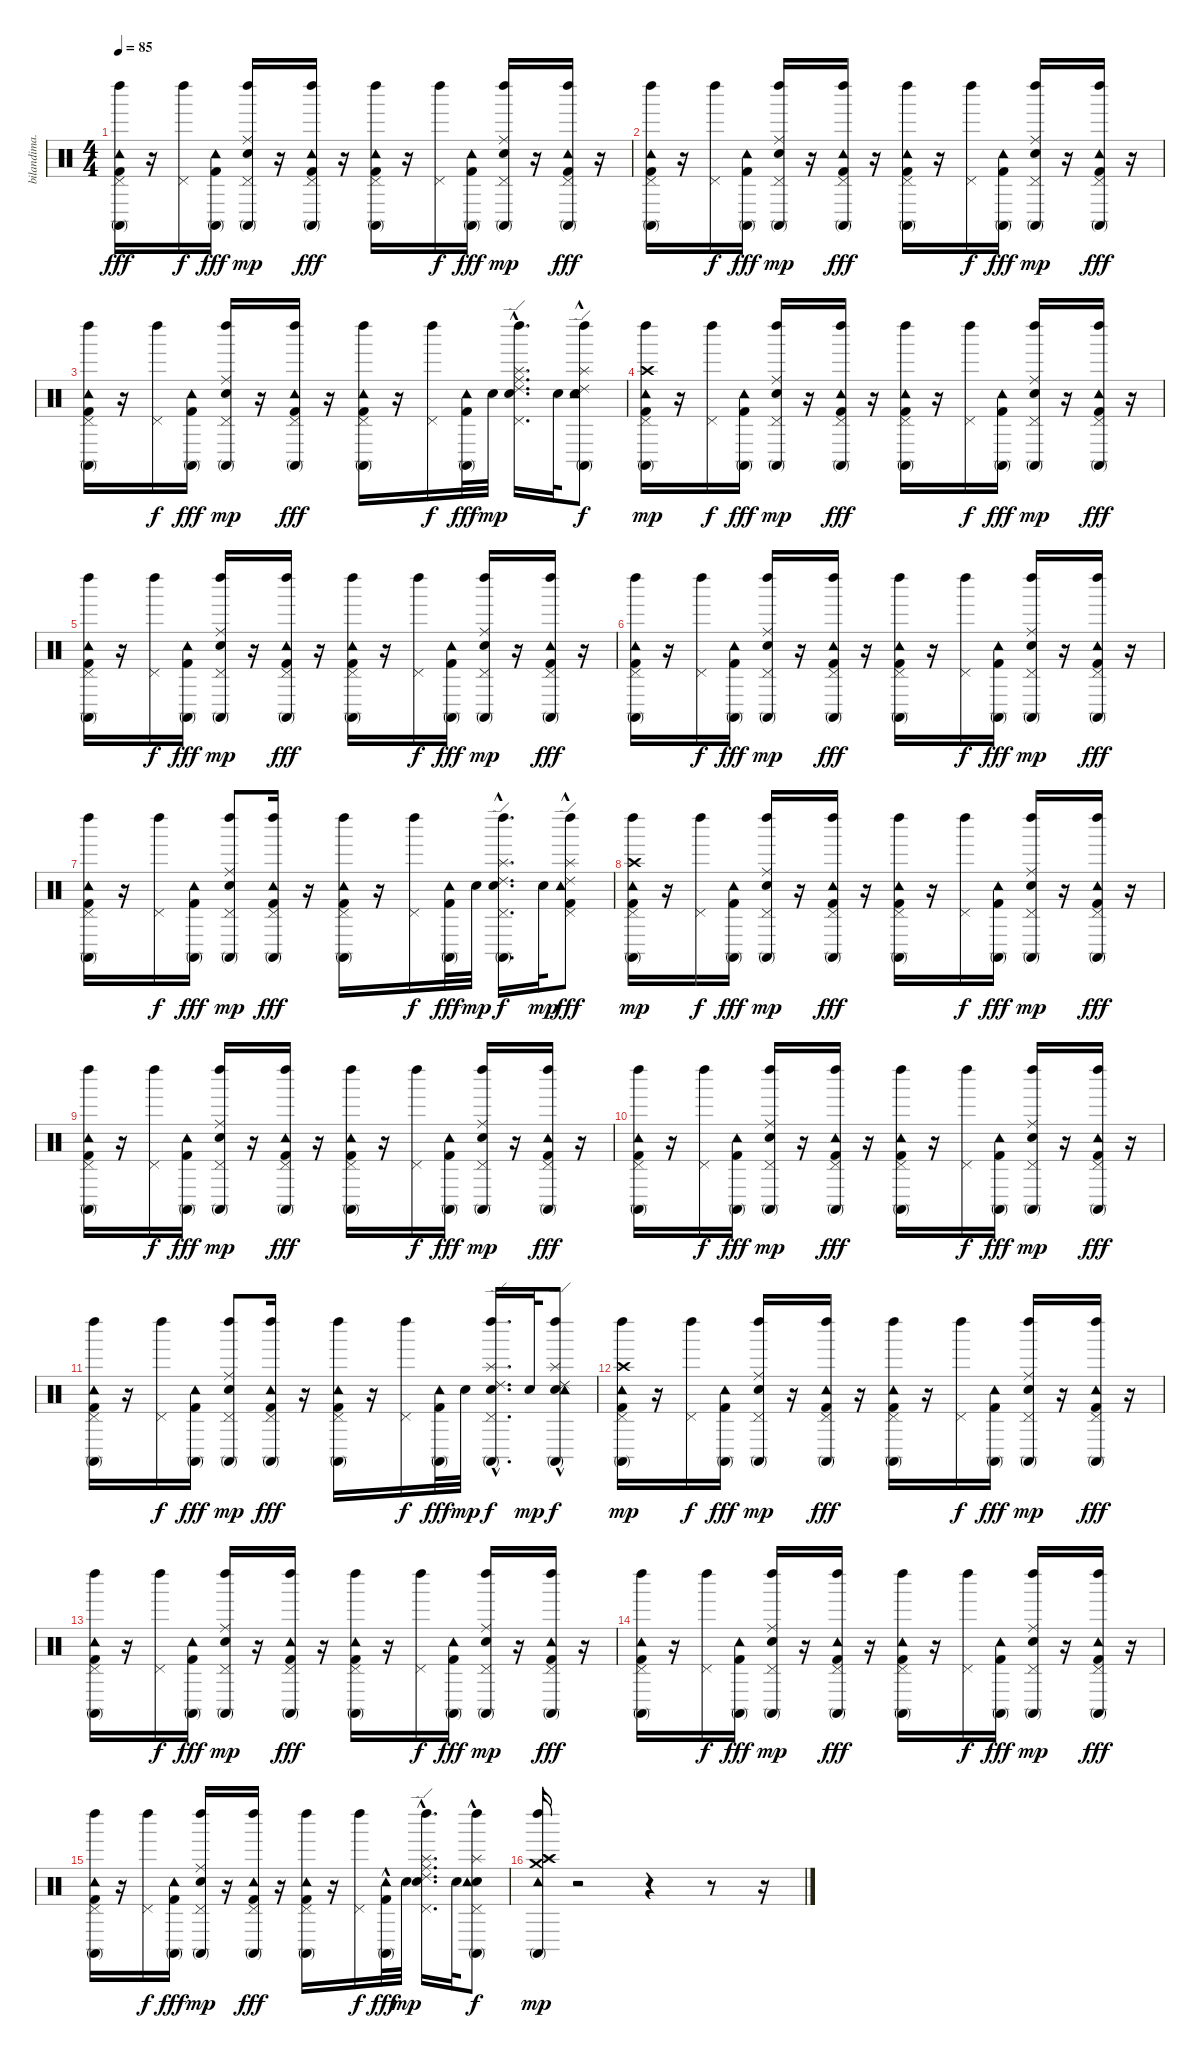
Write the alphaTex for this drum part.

\track ("bilandima.ru" "bilandima.") {instrument percussion}
\staff {score}
\articulation defaults
\ts (4 4)
\tempo 85
\clef neutral
\ks c
("Conga high (mute)" "Left Maraca (hit)" "Tambourine (hit)" "Pedal Hi-Hat (hit)" "Kick (hit) 2").16{dy fff} r.16 ("Left Maraca (hit)" "Pedal Hi-Hat (hit)").16{dy f} ("Tambourine (hit)" "Kick (hit) 2" "Conga high (mute)").16{dy fff} ("Ride (middle)" "Left Maraca (hit)" "Pedal Hi-Hat (hit)" "Electric Snare (hit)" "Conga high (mute)").16{dy mp} r.16 ("Conga high (mute)" "Left Maraca (hit)" "Tambourine (hit)" "Pedal Hi-Hat (hit)" "Kick (hit) 2").16{dy fff} r.16 ("Left Maraca (hit)" "Tambourine (hit)" "Pedal Hi-Hat (hit)" "Kick (hit) 2" "Conga high (mute)").16 r.16 ("Left Maraca (hit)" "Pedal Hi-Hat (hit)").16{dy f} ("Conga high (mute)" "Tambourine (hit)" "Kick (hit) 2").16{dy fff} ("Electric Snare (hit)" "Pedal Hi-Hat (hit)" "Left Maraca (hit)" "Conga high (mute)" "Ride (middle)").16{dy mp} r.16 ("Conga high (mute)" "Left Maraca (hit)" "Tambourine (hit)" "Pedal Hi-Hat (hit)" "Kick (hit) 2").16{dy fff} r.16 |
("Conga high (mute)" "Left Maraca (hit)" "Tambourine (hit)" "Pedal Hi-Hat (hit)" "Kick (hit) 2").16 r.16 ("Left Maraca (hit)" "Pedal Hi-Hat (hit)").16{dy f} ("Tambourine (hit)" "Kick (hit) 2" "Conga high (mute)").16{dy fff} ("Conga high (mute)" "Left Maraca (hit)" "Pedal Hi-Hat (hit)" "Electric Snare (hit)" "Ride (middle)").16{dy mp} r.16 ("Conga high (mute)" "Left Maraca (hit)" "Tambourine (hit)" "Pedal Hi-Hat (hit)" "Kick (hit) 2").16{dy fff} r.16 ("Conga high (mute)" "Left Maraca (hit)" "Tambourine (hit)" "Pedal Hi-Hat (hit)" "Kick (hit) 2").16 r.16 ("Pedal Hi-Hat (hit)" "Left Maraca (hit)").16{dy f} ("Kick (hit) 2" "Tambourine (hit)" "Conga high (mute)").16{dy fff} ("Conga high (mute)" "Left Maraca (hit)" "Pedal Hi-Hat (hit)" "Electric Snare (hit)" "Ride (middle)").16{dy mp} r.16 ("Conga high (mute)" "Left Maraca (hit)" "Tambourine (hit)" "Pedal Hi-Hat (hit)" "Kick (hit) 2").16{dy fff} r.16 |
("Kick (hit) 2" "Pedal Hi-Hat (hit)" "Tambourine (hit)" "Left Maraca (hit)" "Conga high (mute)").16 r.16 ("Left Maraca (hit)" "Pedal Hi-Hat (hit)").16{dy f} ("Kick (hit) 2" "Tambourine (hit)" "Conga high (mute)").16{dy fff} ("Conga high (mute)" "Ride (middle)" "Left Maraca (hit)" "Pedal Hi-Hat (hit)" "Electric Snare (hit)").16{dy mp} r.16 ("Kick (hit) 2" "Pedal Hi-Hat (hit)" "Tambourine (hit)" "Left Maraca (hit)" "Conga high (mute)").16{dy fff} r.16 ("Conga high (mute)" "Left Maraca (hit)" "Tambourine (hit)" "Pedal Hi-Hat (hit)" "Kick (hit) 2").16 r.16 ("Left Maraca (hit)" "Pedal Hi-Hat (hit)").16{dy f} ("Kick (hit) 2" "Tambourine (hit)" "Conga high (mute)").32{dy fff} "Electric Snare (hit)".32{dy mp} ("Ride (middle)" "Pedal Hi-Hat (hit)"{hac} "Left Maraca (hit)" "Splash (hit)" "Electric Snare (hit)" "Ride (edge) 2").16{d} "Electric Snare (hit)".32 ("Conga high (mute)" "Ride (edge) 2" "Electric Snare (hit)" "Splash (hit)"{hac} "Left Maraca (hit)" "Tambourine (hit)").8{dy f} |
("Conga high (mute)" "Left Maraca (hit)" "Tambourine (hit)" "Pedal Hi-Hat (hit)" "Kick (hit) 2" "Crash high (hit)").16{dy mp} r.16 ("Left Maraca (hit)" "Pedal Hi-Hat (hit)").16{dy f} ("Conga high (mute)" "Tambourine (hit)" "Kick (hit) 2").16{dy fff} ("Electric Snare (hit)" "Pedal Hi-Hat (hit)" "Left Maraca (hit)" "Conga high (mute)" "Ride (middle)").16{dy mp} r.16 ("Conga high (mute)" "Left Maraca (hit)" "Tambourine (hit)" "Pedal Hi-Hat (hit)" "Kick (hit) 2").16{dy fff} r.16 ("Left Maraca (hit)" "Tambourine (hit)" "Pedal Hi-Hat (hit)" "Kick (hit) 2" "Conga high (mute)").16 r.16 ("Pedal Hi-Hat (hit)" "Left Maraca (hit)").16{dy f} ("Tambourine (hit)" "Kick (hit) 2" "Conga high (mute)").16{dy fff} ("Ride (middle)" "Left Maraca (hit)" "Pedal Hi-Hat (hit)" "Electric Snare (hit)" "Conga high (mute)").16{dy mp} r.16 ("Conga high (mute)" "Left Maraca (hit)" "Tambourine (hit)" "Pedal Hi-Hat (hit)" "Kick (hit) 2").16{dy fff} r.16 |
("Kick (hit) 2" "Pedal Hi-Hat (hit)" "Tambourine (hit)" "Left Maraca (hit)" "Conga high (mute)").16 r.16 ("Left Maraca (hit)" "Pedal Hi-Hat (hit)").16{dy f} ("Kick (hit) 2" "Tambourine (hit)" "Conga high (mute)").16{dy fff} ("Ride (middle)" "Conga high (mute)" "Left Maraca (hit)" "Pedal Hi-Hat (hit)" "Electric Snare (hit)").16{dy mp} r.16 ("Conga high (mute)" "Left Maraca (hit)" "Tambourine (hit)" "Pedal Hi-Hat (hit)" "Kick (hit) 2").16{dy fff} r.16 ("Conga high (mute)" "Kick (hit) 2" "Pedal Hi-Hat (hit)" "Tambourine (hit)" "Left Maraca (hit)").16 r.16 ("Left Maraca (hit)" "Pedal Hi-Hat (hit)").16{dy f} ("Kick (hit) 2" "Tambourine (hit)" "Conga high (mute)").16{dy fff} ("Ride (middle)" "Conga high (mute)" "Left Maraca (hit)" "Pedal Hi-Hat (hit)" "Electric Snare (hit)").16{dy mp} r.16 ("Kick (hit) 2" "Pedal Hi-Hat (hit)" "Tambourine (hit)" "Left Maraca (hit)" "Conga high (mute)").16{dy fff} r.16 |
("Conga high (mute)" "Left Maraca (hit)" "Tambourine (hit)" "Pedal Hi-Hat (hit)" "Kick (hit) 2").16 r.16 ("Left Maraca (hit)" "Pedal Hi-Hat (hit)").16{dy f} ("Conga high (mute)" "Tambourine (hit)" "Kick (hit) 2").16{dy fff} ("Ride (middle)" "Electric Snare (hit)" "Pedal Hi-Hat (hit)" "Left Maraca (hit)" "Conga high (mute)").16{dy mp} r.16 ("Kick (hit) 2" "Pedal Hi-Hat (hit)" "Tambourine (hit)" "Left Maraca (hit)" "Conga high (mute)").16{dy fff} r.16 ("Conga high (mute)" "Left Maraca (hit)" "Tambourine (hit)" "Pedal Hi-Hat (hit)" "Kick (hit) 2").16 r.16 ("Pedal Hi-Hat (hit)" "Left Maraca (hit)").16{dy f} ("Conga high (mute)" "Tambourine (hit)" "Kick (hit) 2").16{dy fff} ("Ride (middle)" "Electric Snare (hit)" "Pedal Hi-Hat (hit)" "Left Maraca (hit)" "Conga high (mute)").16{dy mp} r.16 ("Conga high (mute)" "Left Maraca (hit)" "Tambourine (hit)" "Pedal Hi-Hat (hit)" "Kick (hit) 2").16{dy fff} r.16 |
("Conga high (mute)" "Left Maraca (hit)" "Tambourine (hit)" "Pedal Hi-Hat (hit)" "Kick (hit) 2").16 r.16 ("Pedal Hi-Hat (hit)" "Left Maraca (hit)").16{dy f} ("Conga high (mute)" "Tambourine (hit)" "Kick (hit) 2").16{dy fff} ("Conga high (mute)" "Ride (middle)" "Left Maraca (hit)" "Pedal Hi-Hat (hit)" "Electric Snare (hit)").8{dy mp} ("Conga high (mute)" "Left Maraca (hit)" "Tambourine (hit)" "Pedal Hi-Hat (hit)" "Kick (hit) 2").16{dy fff} r.16 ("Conga high (mute)" "Left Maraca (hit)" "Tambourine (hit)" "Pedal Hi-Hat (hit)" "Kick (hit) 2").16 r.16 ("Pedal Hi-Hat (hit)" "Left Maraca (hit)").16{dy f} ("Kick (hit) 2" "Tambourine (hit)" "Conga high (mute)").32{dy fff} "Electric Snare (hit)".32{dy mp} ("Ride (edge) 2" "Conga high (mute)"{hac} "Electric Snare (hit)" "Splash (hit)" "Left Maraca (hit)" "Pedal Hi-Hat (hit)").16{d dy f} "Electric Snare (hit)".32{dy mp} ("Ride (edge) 2" "Kick (hit) 2" "Pedal Hi-Hat (hit)" "Tambourine (hit)" "Left Maraca (hit)" "Splash (hit)"{hac}).8{dy fff} |
("Conga high (mute)" "Left Maraca (hit)" "Tambourine (hit)" "Pedal Hi-Hat (hit)" "Kick (hit) 2" "Crash high (hit)").16{dy mp} r.16 ("Left Maraca (hit)" "Pedal Hi-Hat (hit)").16{dy f} ("Kick (hit) 2" "Tambourine (hit)" "Conga high (mute)").16{dy fff} ("Ride (middle)" "Conga high (mute)" "Left Maraca (hit)" "Pedal Hi-Hat (hit)" "Electric Snare (hit)").16{dy mp} r.16 ("Kick (hit) 2" "Pedal Hi-Hat (hit)" "Tambourine (hit)" "Left Maraca (hit)" "Conga high (mute)").16{dy fff} r.16 ("Left Maraca (hit)" "Tambourine (hit)" "Pedal Hi-Hat (hit)" "Kick (hit) 2" "Conga high (mute)").16 r.16 ("Left Maraca (hit)" "Pedal Hi-Hat (hit)").16{dy f} ("Conga high (mute)" "Tambourine (hit)" "Kick (hit) 2").16{dy fff} ("Electric Snare (hit)" "Pedal Hi-Hat (hit)" "Left Maraca (hit)" "Conga high (mute)" "Ride (middle)").16{dy mp} r.16 ("Kick (hit) 2" "Pedal Hi-Hat (hit)" "Tambourine (hit)" "Left Maraca (hit)" "Conga high (mute)").16{dy fff} r.16 |
("Conga high (mute)" "Left Maraca (hit)" "Tambourine (hit)" "Pedal Hi-Hat (hit)" "Kick (hit) 2").16 r.16 ("Left Maraca (hit)" "Pedal Hi-Hat (hit)").16{dy f} ("Conga high (mute)" "Tambourine (hit)" "Kick (hit) 2").16{dy fff} ("Electric Snare (hit)" "Pedal Hi-Hat (hit)" "Left Maraca (hit)" "Conga high (mute)" "Ride (middle)").16{dy mp} r.16 ("Conga high (mute)" "Left Maraca (hit)" "Tambourine (hit)" "Pedal Hi-Hat (hit)" "Kick (hit) 2").16{dy fff} r.16 ("Left Maraca (hit)" "Tambourine (hit)" "Pedal Hi-Hat (hit)" "Kick (hit) 2" "Conga high (mute)").16 r.16 ("Pedal Hi-Hat (hit)" "Left Maraca (hit)").16{dy f} ("Conga high (mute)" "Tambourine (hit)" "Kick (hit) 2").16{dy fff} ("Ride (middle)" "Conga high (mute)" "Left Maraca (hit)" "Pedal Hi-Hat (hit)" "Electric Snare (hit)").16{dy mp} r.16 ("Conga high (mute)" "Left Maraca (hit)" "Tambourine (hit)" "Pedal Hi-Hat (hit)" "Kick (hit) 2").16{dy fff} r.16 |
("Kick (hit) 2" "Pedal Hi-Hat (hit)" "Tambourine (hit)" "Left Maraca (hit)" "Conga high (mute)").16 r.16 ("Left Maraca (hit)" "Pedal Hi-Hat (hit)").16{dy f} ("Conga high (mute)" "Tambourine (hit)" "Kick (hit) 2").16{dy fff} ("Conga high (mute)" "Left Maraca (hit)" "Pedal Hi-Hat (hit)" "Electric Snare (hit)" "Ride (middle)").16{dy mp} r.16 ("Conga high (mute)" "Left Maraca (hit)" "Tambourine (hit)" "Pedal Hi-Hat (hit)" "Kick (hit) 2").16{dy fff} r.16 ("Conga high (mute)" "Left Maraca (hit)" "Tambourine (hit)" "Pedal Hi-Hat (hit)" "Kick (hit) 2").16 r.16 ("Left Maraca (hit)" "Pedal Hi-Hat (hit)").16{dy f} ("Kick (hit) 2" "Tambourine (hit)" "Conga high (mute)").16{dy fff} ("Conga high (mute)" "Left Maraca (hit)" "Pedal Hi-Hat (hit)" "Electric Snare (hit)" "Ride (middle)").16{dy mp} r.16 ("Kick (hit) 2" "Pedal Hi-Hat (hit)" "Tambourine (hit)" "Left Maraca (hit)" "Conga high (mute)").16{dy fff} r.16 |
("Conga high (mute)" "Left Maraca (hit)" "Tambourine (hit)" "Pedal Hi-Hat (hit)" "Kick (hit) 2").16 r.16 ("Left Maraca (hit)" "Pedal Hi-Hat (hit)").16{dy f} ("Conga high (mute)" "Tambourine (hit)" "Kick (hit) 2").16{dy fff} ("Electric Snare (hit)" "Pedal Hi-Hat (hit)" "Left Maraca (hit)" "Ride (middle)" "Conga high (mute)").8{dy mp} ("Conga high (mute)" "Left Maraca (hit)" "Tambourine (hit)" "Pedal Hi-Hat (hit)" "Kick (hit) 2").16{dy fff} r.16 ("Conga high (mute)" "Left Maraca (hit)" "Tambourine (hit)" "Pedal Hi-Hat (hit)" "Kick (hit) 2").16 r.16 ("Pedal Hi-Hat (hit)" "Left Maraca (hit)").16{dy f} ("Conga high (mute)" "Tambourine (hit)" "Kick (hit) 2").32{dy fff} "Electric Snare (hit)".32{dy mp} ("Conga high (mute)" "Ride (edge) 2" "Electric Snare (hit)" "Splash (hit)" "Left Maraca (hit)" "Pedal Hi-Hat (hit)"{hac}).16{d dy f} "Electric Snare (hit)".32{dy mp} ("Conga high (mute)" "Ride (edge) 2" "Electric Snare (hit)" "Splash (hit)"{hac} "Left Maraca (hit)" "Tambourine (hit)").8{dy f} |
("Conga high (mute)" "Left Maraca (hit)" "Tambourine (hit)" "Pedal Hi-Hat (hit)" "Kick (hit) 2" "Crash high (hit)").16{dy mp} r.16 ("Pedal Hi-Hat (hit)" "Left Maraca (hit)").16{dy f} ("Conga high (mute)" "Tambourine (hit)" "Kick (hit) 2").16{dy fff} ("Ride (middle)" "Conga high (mute)" "Left Maraca (hit)" "Pedal Hi-Hat (hit)" "Electric Snare (hit)").16{dy mp} r.16 ("Conga high (mute)" "Left Maraca (hit)" "Tambourine (hit)" "Pedal Hi-Hat (hit)" "Kick (hit) 2").16{dy fff} r.16 ("Conga high (mute)" "Kick (hit) 2" "Pedal Hi-Hat (hit)" "Tambourine (hit)" "Left Maraca (hit)").16 r.16 ("Left Maraca (hit)" "Pedal Hi-Hat (hit)").16{dy f} ("Kick (hit) 2" "Tambourine (hit)" "Conga high (mute)").16{dy fff} ("Ride (middle)" "Conga high (mute)" "Left Maraca (hit)" "Pedal Hi-Hat (hit)" "Electric Snare (hit)").16{dy mp} r.16 ("Kick (hit) 2" "Pedal Hi-Hat (hit)" "Tambourine (hit)" "Left Maraca (hit)" "Conga high (mute)").16{dy fff} r.16 |
("Conga high (mute)" "Left Maraca (hit)" "Tambourine (hit)" "Pedal Hi-Hat (hit)" "Kick (hit) 2").16 r.16 ("Left Maraca (hit)" "Pedal Hi-Hat (hit)").16{dy f} ("Conga high (mute)" "Tambourine (hit)" "Kick (hit) 2").16{dy fff} ("Electric Snare (hit)" "Pedal Hi-Hat (hit)" "Left Maraca (hit)" "Conga high (mute)" "Ride (middle)").16{dy mp} r.16 ("Kick (hit) 2" "Pedal Hi-Hat (hit)" "Tambourine (hit)" "Left Maraca (hit)" "Conga high (mute)").16{dy fff} r.16 ("Left Maraca (hit)" "Tambourine (hit)" "Pedal Hi-Hat (hit)" "Kick (hit) 2" "Conga high (mute)").16 r.16 ("Left Maraca (hit)" "Pedal Hi-Hat (hit)").16{dy f} ("Conga high (mute)" "Tambourine (hit)" "Kick (hit) 2").16{dy fff} ("Electric Snare (hit)" "Pedal Hi-Hat (hit)" "Left Maraca (hit)" "Conga high (mute)" "Ride (middle)").16{dy mp} r.16 ("Conga high (mute)" "Left Maraca (hit)" "Tambourine (hit)" "Pedal Hi-Hat (hit)" "Kick (hit) 2").16{dy fff} r.16 |
("Conga high (mute)" "Left Maraca (hit)" "Tambourine (hit)" "Pedal Hi-Hat (hit)" "Kick (hit) 2").16 r.16 ("Pedal Hi-Hat (hit)" "Left Maraca (hit)").16{dy f} ("Conga high (mute)" "Tambourine (hit)" "Kick (hit) 2").16{dy fff} ("Conga high (mute)" "Left Maraca (hit)" "Pedal Hi-Hat (hit)" "Electric Snare (hit)" "Ride (middle)").16{dy mp} r.16 ("Conga high (mute)" "Left Maraca (hit)" "Tambourine (hit)" "Pedal Hi-Hat (hit)" "Kick (hit) 2").16{dy fff} r.16 ("Kick (hit) 2" "Pedal Hi-Hat (hit)" "Tambourine (hit)" "Left Maraca (hit)" "Conga high (mute)").16 r.16 ("Pedal Hi-Hat (hit)" "Left Maraca (hit)").16{dy f} ("Conga high (mute)" "Tambourine (hit)" "Kick (hit) 2").16{dy fff} ("Conga high (mute)" "Left Maraca (hit)" "Pedal Hi-Hat (hit)" "Electric Snare (hit)" "Ride (middle)").16{dy mp} r.16 ("Conga high (mute)" "Left Maraca (hit)" "Tambourine (hit)" "Pedal Hi-Hat (hit)" "Kick (hit) 2").16{dy fff} r.16 |
("Kick (hit) 2" "Pedal Hi-Hat (hit)" "Tambourine (hit)" "Left Maraca (hit)" "Conga high (mute)").16 r.16 ("Left Maraca (hit)" "Pedal Hi-Hat (hit)").16{dy f} ("Kick (hit) 2" "Tambourine (hit)" "Conga high (mute)").16{dy fff} ("Conga high (mute)" "Ride (middle)" "Left Maraca (hit)" "Pedal Hi-Hat (hit)" "Electric Snare (hit)").16{dy mp} r.16 ("Kick (hit) 2" "Pedal Hi-Hat (hit)" "Tambourine (hit)" "Left Maraca (hit)" "Conga high (mute)").16{dy fff} r.16 ("Kick (hit) 2" "Pedal Hi-Hat (hit)" "Tambourine (hit)" "Left Maraca (hit)" "Conga high (mute)").16 r.16 ("Left Maraca (hit)" "Pedal Hi-Hat (hit)").16{dy f} ("Kick (hit) 2"{hac} "Tambourine (hit)" "Conga high (mute)").32{dy fff} "Electric Snare (hit)".32{dy mp} ("Ride (middle)" "Pedal Hi-Hat (hit)" "Left Maraca (hit)" "Splash (hit)" "Electric Snare (hit)" "Ride (edge) 2"{hac}).16{d} "Electric Snare (hit)".32 ("Conga high (mute)" "Electric Snare (hit)" "Splash (hit)" "Left Maraca (hit)" "Tambourine (hit)" "Pedal Hi-Hat (hit)"{hac}).8{dy f} |
("Left Maraca (hit)" "Conga high (mute)" "Crash medium (hit)" "Crash high (hit)" "Splash (hit)" "Tambourine (hit)").16{dy mp} r.2 r.4 r.8 r.16
